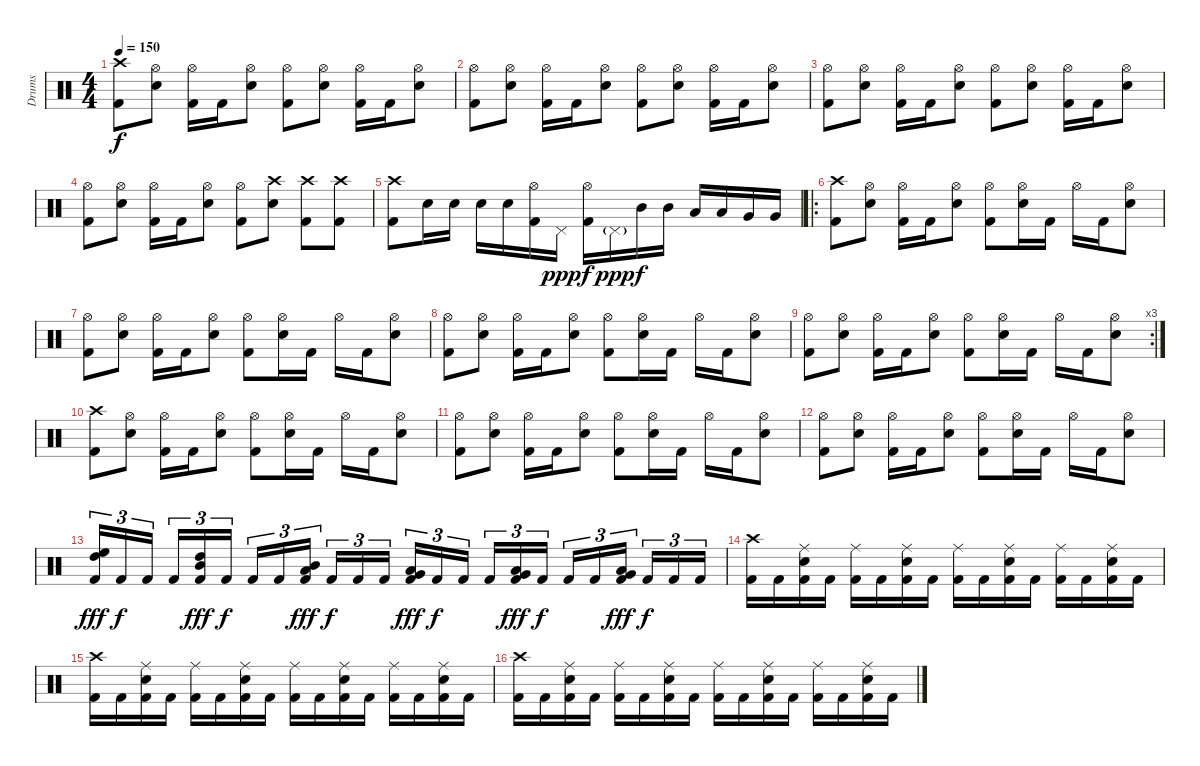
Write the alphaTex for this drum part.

\track ("Drums" "Drums") {instrument percussion}
\staff {score}
\articulation defaults
\ts (4 4)
\tempo 150
\clef neutral
\ks c
("Crash high (hit)" "Kick (hit) 2").8{dy f} ("Hi-Hat (open)" "Electric Snare (hit)").8 ("Hi-Hat (open)" "Kick (hit) 2").16 "Kick (hit) 2".16 ("Hi-Hat (open)" "Electric Snare (hit)").8 ("Hi-Hat (open)" "Kick (hit) 2").8 ("Hi-Hat (open)" "Electric Snare (hit)").8 ("Hi-Hat (open)" "Kick (hit) 2").16 "Kick (hit) 2".16 ("Hi-Hat (open)" "Electric Snare (hit)").8 |
("Hi-Hat (open)" "Kick (hit) 2").8 ("Hi-Hat (open)" "Electric Snare (hit)").8 ("Hi-Hat (open)" "Kick (hit) 2").16 "Kick (hit) 2".16 ("Hi-Hat (open)" "Electric Snare (hit)").8 ("Hi-Hat (open)" "Kick (hit) 2").8 ("Hi-Hat (open)" "Electric Snare (hit)").8 ("Hi-Hat (open)" "Kick (hit) 2").16 "Kick (hit) 2".16 ("Hi-Hat (open)" "Electric Snare (hit)").8 |
("Hi-Hat (open)" "Kick (hit) 2").8 ("Hi-Hat (open)" "Electric Snare (hit)").8 ("Hi-Hat (open)" "Kick (hit) 2").16 "Kick (hit) 2".16 ("Hi-Hat (open)" "Electric Snare (hit)").8 ("Hi-Hat (open)" "Kick (hit) 2").8 ("Hi-Hat (open)" "Electric Snare (hit)").8 ("Hi-Hat (open)" "Kick (hit) 2").16 "Kick (hit) 2".16 ("Hi-Hat (open)" "Electric Snare (hit)").8 |
("Hi-Hat (open)" "Kick (hit) 2").8 ("Hi-Hat (open)" "Electric Snare (hit)").8 ("Hi-Hat (open)" "Kick (hit) 2").16 "Kick (hit) 2".16 ("Hi-Hat (open)" "Electric Snare (hit)").8 ("Hi-Hat (open)" "Kick (hit) 2").8 ("Crash high (hit)" "Electric Snare (hit)").8 ("Crash high (hit)" "Kick (hit) 2").8 ("Crash high (hit)" "Kick (hit) 2").8 |
("Crash high (hit)" "Kick (hit) 2").8 "Electric Snare (hit)".16 "Electric Snare (hit)".16 "Electric Snare (hit)".16 "Electric Snare (hit)".16 ("Hi-Hat (open)" "Kick (hit) 2").16 "Pedal Hi-Hat (hit)".16{dy ppp} ("Hi-Hat (open)" "Kick (hit) 2").16{dy f} "Pedal Hi-Hat (hit)"{g}.16{dy ppp} "Mid Tom (hit)".16{dy f} "Mid Tom (hit)".16 "Low Tom (hit)".16 "Low Tom (hit)".16 "Very Low Tom (hit)".16 "Very Low Tom (hit)".16 |
\ro
("Crash high (hit)" "Kick (hit) 2").8 ("Hi-Hat (open)" "Electric Snare (hit)").8 ("Hi-Hat (open)" "Kick (hit) 2").16 "Kick (hit) 2".16 ("Hi-Hat (open)" "Electric Snare (hit)").8 ("Hi-Hat (open)" "Kick (hit) 2").8 ("Hi-Hat (open)" "Electric Snare (hit)").16 "Kick (hit) 2".16 "Hi-Hat (open)".16 "Kick (hit) 2".16 ("Hi-Hat (open)" "Electric Snare (hit)").8 |
("Hi-Hat (open)" "Kick (hit) 2").8 ("Hi-Hat (open)" "Electric Snare (hit)").8 ("Hi-Hat (open)" "Kick (hit) 2").16 "Kick (hit) 2".16 ("Hi-Hat (open)" "Electric Snare (hit)").8 ("Hi-Hat (open)" "Kick (hit) 2").8 ("Hi-Hat (open)" "Electric Snare (hit)").16 "Kick (hit) 2".16 "Hi-Hat (open)".16 "Kick (hit) 2".16 ("Hi-Hat (open)" "Electric Snare (hit)").8 |
("Hi-Hat (open)" "Kick (hit) 2").8 ("Hi-Hat (open)" "Electric Snare (hit)").8 ("Hi-Hat (open)" "Kick (hit) 2").16 "Kick (hit) 2".16 ("Hi-Hat (open)" "Electric Snare (hit)").8 ("Hi-Hat (open)" "Kick (hit) 2").8 ("Hi-Hat (open)" "Electric Snare (hit)").16 "Kick (hit) 2".16 "Hi-Hat (open)".16 "Kick (hit) 2".16 ("Hi-Hat (open)" "Electric Snare (hit)").8 |
\rc 3
("Hi-Hat (open)" "Kick (hit) 2").8 ("Hi-Hat (open)" "Electric Snare (hit)").8 ("Hi-Hat (open)" "Kick (hit) 2").16 "Kick (hit) 2".16 ("Hi-Hat (open)" "Electric Snare (hit)").8 ("Hi-Hat (open)" "Kick (hit) 2").8 ("Hi-Hat (open)" "Electric Snare (hit)").16 "Kick (hit) 2".16 "Hi-Hat (open)".16 "Kick (hit) 2".16 ("Hi-Hat (open)" "Electric Snare (hit)").8 |
("Crash high (hit)" "Kick (hit) 2").8 ("Hi-Hat (open)" "Electric Snare (hit)").8 ("Hi-Hat (open)" "Kick (hit) 2").16 "Kick (hit) 2".16 ("Hi-Hat (open)" "Electric Snare (hit)").8 ("Hi-Hat (open)" "Kick (hit) 2").8 ("Hi-Hat (open)" "Electric Snare (hit)").16 "Kick (hit) 2".16 "Hi-Hat (open)".16 "Kick (hit) 2".16 ("Hi-Hat (open)" "Electric Snare (hit)").8 |
("Hi-Hat (open)" "Kick (hit) 2").8 ("Hi-Hat (open)" "Electric Snare (hit)").8 ("Hi-Hat (open)" "Kick (hit) 2").16 "Kick (hit) 2".16 ("Hi-Hat (open)" "Electric Snare (hit)").8 ("Hi-Hat (open)" "Kick (hit) 2").8 ("Hi-Hat (open)" "Electric Snare (hit)").16 "Kick (hit) 2".16 "Hi-Hat (open)".16 "Kick (hit) 2".16 ("Hi-Hat (open)" "Electric Snare (hit)").8 |
("Hi-Hat (open)" "Kick (hit) 2").8 ("Hi-Hat (open)" "Electric Snare (hit)").8 ("Hi-Hat (open)" "Kick (hit) 2").16 "Kick (hit) 2".16 ("Hi-Hat (open)" "Electric Snare (hit)").8 ("Hi-Hat (open)" "Kick (hit) 2").8 ("Hi-Hat (open)" "Electric Snare (hit)").16 "Kick (hit) 2".16 "Hi-Hat (open)".16 "Kick (hit) 2".16 ("Hi-Hat (open)" "Electric Snare (hit)").8 |
("High Floor Tom (hit)" "High Tom (hit)" "Kick (hit) 2").16{tu (3 2) dy fff} "Kick (hit) 2".16{tu (3 2) dy f} "Kick (hit) 2".16{tu (3 2)} "Kick (hit) 2".16{tu (3 2)} ("High Tom (hit)" "Mid Tom (hit)" "Kick (hit) 2").16{tu (3 2) dy fff} "Kick (hit) 2".16{tu (3 2) dy f} "Kick (hit) 2".16{tu (3 2)} "Kick (hit) 2".16{tu (3 2)} ("Mid Tom (hit)" "Low Tom (hit)" "Kick (hit) 2").16{tu (3 2) dy fff} "Kick (hit) 2".16{tu (3 2) dy f} "Kick (hit) 2".16{tu (3 2)} "Kick (hit) 2".16{tu (3 2)} ("Low Tom (hit)" "Very Low Tom (hit)" "Kick (hit) 2").16{tu (3 2) dy fff} "Kick (hit) 2".16{tu (3 2) dy f} "Kick (hit) 2".16{tu (3 2)} "Kick (hit) 2".16{tu (3 2)} ("Very Low Tom (hit)" "Low Floor Tom (hit)" "Kick (hit) 2").16{tu (3 2) dy fff} "Kick (hit) 2".16{tu (3 2) dy f} "Kick (hit) 2".16{tu (3 2)} "Kick (hit) 2".16{tu (3 2)} ("Low Tom (hit)" "Very Low Tom (hit)" "Kick (hit) 2").16{tu (3 2) dy fff} "Kick (hit) 2".16{tu (3 2) dy f} "Kick (hit) 2".16{tu (3 2)} "Kick (hit) 2".16{tu (3 2)} |
("Crash high (hit)" "Kick (hit) 2").16 "Kick (hit) 2".16 ("Ride (middle)" "Electric Snare (hit)" "Kick (hit) 2").16 "Kick (hit) 2".16 ("Ride (middle)" "Kick (hit) 2").16 "Kick (hit) 2".16 ("Ride (middle)" "Electric Snare (hit)" "Kick (hit) 2").16 "Kick (hit) 2".16 ("Ride (middle)" "Kick (hit) 2").16 "Kick (hit) 2".16 ("Ride (middle)" "Electric Snare (hit)" "Kick (hit) 2").16 "Kick (hit) 2".16 ("Ride (middle)" "Kick (hit) 2").16 "Kick (hit) 2".16 ("Ride (middle)" "Electric Snare (hit)" "Kick (hit) 2").16 "Kick (hit) 2".16 |
("Crash high (hit)" "Kick (hit) 2").16 "Kick (hit) 2".16 ("Ride (middle)" "Electric Snare (hit)" "Kick (hit) 2").16 "Kick (hit) 2".16 ("Ride (middle)" "Kick (hit) 2").16 "Kick (hit) 2".16 ("Ride (middle)" "Electric Snare (hit)" "Kick (hit) 2").16 "Kick (hit) 2".16 ("Ride (middle)" "Kick (hit) 2").16 "Kick (hit) 2".16 ("Ride (middle)" "Electric Snare (hit)" "Kick (hit) 2").16 "Kick (hit) 2".16 ("Ride (middle)" "Kick (hit) 2").16 "Kick (hit) 2".16 ("Ride (middle)" "Electric Snare (hit)" "Kick (hit) 2").16 "Kick (hit) 2".16 |
("Crash high (hit)" "Kick (hit) 2").16 "Kick (hit) 2".16 ("Ride (middle)" "Electric Snare (hit)" "Kick (hit) 2").16 "Kick (hit) 2".16 ("Ride (middle)" "Kick (hit) 2").16 "Kick (hit) 2".16 ("Ride (middle)" "Electric Snare (hit)" "Kick (hit) 2").16 "Kick (hit) 2".16 ("Ride (middle)" "Kick (hit) 2").16 "Kick (hit) 2".16 ("Ride (middle)" "Electric Snare (hit)" "Kick (hit) 2").16 "Kick (hit) 2".16 ("Ride (middle)" "Kick (hit) 2").16 "Kick (hit) 2".16 ("Ride (middle)" "Electric Snare (hit)" "Kick (hit) 2").16 "Kick (hit) 2".16
